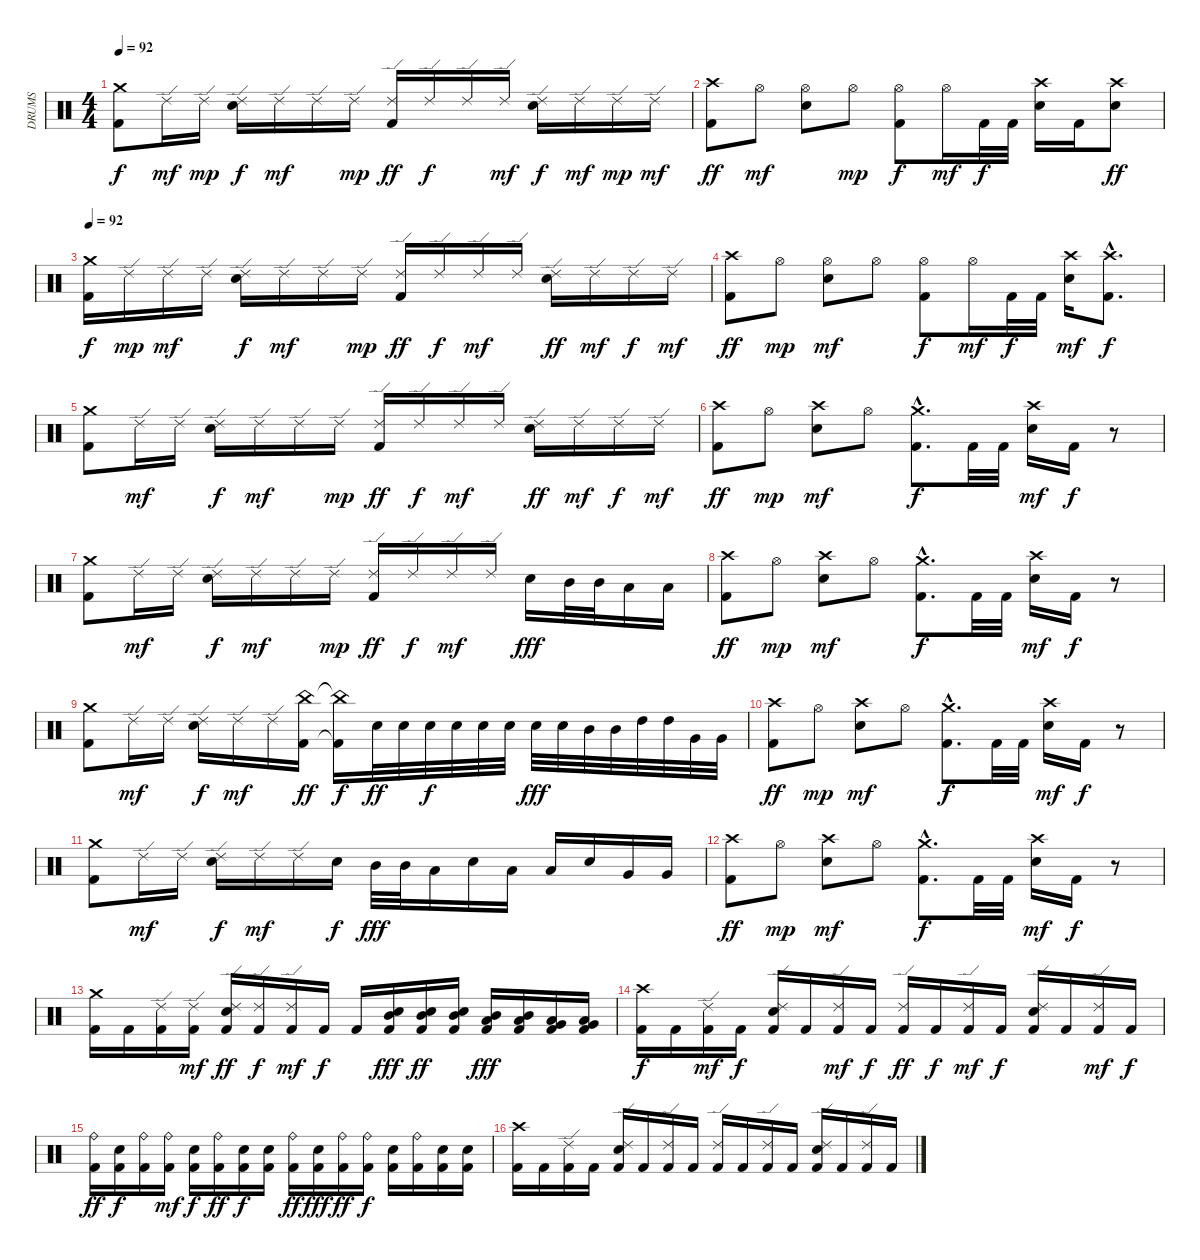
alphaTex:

\track ("DRUMS" "DRUMS") {instrument percussion}
\staff {score}
\articulation defaults
\ts (4 4)
\tempo 92
\clef neutral
\ks c
("Crash medium (hit)" "Kick (hit) 2").8{dy f} "Ride (edge) 2".16{dy mf} "Ride (edge) 2".16{dy mp} ("Ride (edge) 2" "Electric Snare (hit)").16{dy f} "Ride (edge) 2".16{dy mf} "Ride (edge) 2".16 "Ride (edge) 2".16{dy mp} ("Ride (edge) 2" "Kick (hit) 2").16{dy ff} "Ride (edge) 2".16{dy f} "Ride (edge) 2".16 "Ride (edge) 2".16{dy mf} ("Ride (edge) 2" "Electric Snare (hit)").16{dy f} "Ride (edge) 2".16{dy mf} "Ride (edge) 2".16{dy mp} "Ride (edge) 2".16{dy mf} |
("Crash high (hit)" "Kick (hit) 2").8{dy ff} "Hi-Hat (open)".8{dy mf} ("Hi-Hat (open)" "Electric Snare (hit)").8 "Hi-Hat (open)".8{dy mp} ("Hi-Hat (open)" "Kick (hit) 2").8{dy f} "Hi-Hat (open)".16{dy mf} "Kick (hit) 2".32{dy f} "Kick (hit) 2".32 ("Crash high (hit)" "Electric Snare (hit)").16 "Kick (hit) 2".16 ("Crash high (hit)" "Electric Snare (hit)").8{dy ff} |
\tempo 92
("Crash medium (hit)" "Kick (hit) 2").16{dy f} "Ride (edge) 2".16{dy mp} "Ride (edge) 2".16{dy mf} "Ride (edge) 2".16 ("Ride (edge) 2" "Electric Snare (hit)").16{dy f} "Ride (edge) 2".16{dy mf} "Ride (edge) 2".16 "Ride (edge) 2".16{dy mp} ("Ride (edge) 2" "Kick (hit) 2").16{dy ff} "Ride (edge) 2".16{dy f} "Ride (edge) 2".16{dy mf} "Ride (edge) 2".16 ("Ride (edge) 2" "Electric Snare (hit)").16{dy ff} "Ride (edge) 2".16{dy mf} "Ride (edge) 2".16{dy f} "Ride (edge) 2".16{dy mf} |
("Crash high (hit)" "Kick (hit) 2").8{dy ff} "Hi-Hat (open)".8{dy mp} ("Hi-Hat (open)" "Electric Snare (hit)").8{dy mf} "Hi-Hat (open)".8 ("Hi-Hat (open)" "Kick (hit) 2").8{dy f} "Hi-Hat (open)".16{dy mf} "Kick (hit) 2".32{dy f} "Kick (hit) 2".32 ("Crash high (hit)" "Electric Snare (hit)").16{dy mf} ("Crash high (hit)"{hac} "Kick (hit) 2"{hac}).8{d dy f} |
("Crash medium (hit)" "Kick (hit) 2").8 "Ride (edge) 2".16{dy mf} "Ride (edge) 2".16 ("Ride (edge) 2" "Electric Snare (hit)").16{dy f} "Ride (edge) 2".16{dy mf} "Ride (edge) 2".16 "Ride (edge) 2".16{dy mp} ("Ride (edge) 2" "Kick (hit) 2").16{dy ff} "Ride (edge) 2".16{dy f} "Ride (edge) 2".16{dy mf} "Ride (edge) 2".16 ("Ride (edge) 2" "Electric Snare (hit)").16{dy ff} "Ride (edge) 2".16{dy mf} "Ride (edge) 2".16{dy f} "Ride (edge) 2".16{dy mf} |
("Crash high (hit)" "Kick (hit) 2").8{dy ff} "Hi-Hat (open)".8{dy mp} ("Crash high (hit)" "Electric Snare (hit)").8{dy mf} "Hi-Hat (open)".8 ("Crash medium (hit)"{hac} "Kick (hit) 2"{hac}).8{d dy f} "Kick (hit) 2".32 "Kick (hit) 2".32 ("Crash high (hit)" "Electric Snare (hit)").16{dy mf} "Kick (hit) 2".16{dy f} r.8{volume 0} |
("Crash medium (hit)" "Kick (hit) 2").8{volume 14} "Ride (edge) 2".16{dy mf} "Ride (edge) 2".16 ("Ride (edge) 2" "Electric Snare (hit)").16{dy f} "Ride (edge) 2".16{dy mf} "Ride (edge) 2".16 "Ride (edge) 2".16{dy mp} ("Ride (edge) 2" "Kick (hit) 2").16{dy ff} "Ride (edge) 2".16{dy f} "Ride (edge) 2".16{dy mf} "Ride (edge) 2".16 "Electric Snare (hit)".16{dy fff} "Mid Tom (hit)".32 "Mid Tom (hit)".32 "Low Tom (hit)".16 "Low Tom (hit)".16 |
("Crash high (hit)" "Kick (hit) 2").8{dy ff} "Hi-Hat (open)".8{dy mp} ("Crash high (hit)" "Electric Snare (hit)").8{dy mf} "Hi-Hat (open)".8 ("Crash medium (hit)"{hac} "Kick (hit) 2"{hac}).8{d dy f} "Kick (hit) 2".32 "Kick (hit) 2".32 ("Crash high (hit)" "Electric Snare (hit)").16{dy mf} "Kick (hit) 2".16{dy f} r.8{volume 0} |
("Crash medium (hit)" "Kick (hit) 2").8{volume 14} "Ride (edge) 2".16{dy mf} "Ride (edge) 2".16 ("Ride (edge) 2" "Electric Snare (hit)").16{dy f} "Ride (edge) 2".16{dy mf} "Ride (edge) 2".16 ("China (hit)" "Kick (hit) 2").16{dy ff} ("China (hit)"{t} "Kick (hit) 2"{t}).16{dy f} "Electric Snare (hit)".32{dy ff} "Electric Snare (hit)".32 "Electric Snare (hit)".32{dy f} "Electric Snare (hit)".32 "Electric Snare (hit)".32 "Electric Snare (hit)".32 "Electric Snare (hit)".32{dy fff} "Electric Snare (hit)".32 "Mid Tom (hit)".32 "Mid Tom (hit)".32 "High Tom (hit)".32 "High Tom (hit)".32 "Very Low Tom (hit)".32 "Very Low Tom (hit)".32 |
("Crash high (hit)" "Kick (hit) 2").8{dy ff} "Hi-Hat (open)".8{dy mp} ("Crash high (hit)" "Electric Snare (hit)").8{dy mf} "Hi-Hat (open)".8 ("Crash medium (hit)"{hac} "Kick (hit) 2"{hac}).8{d dy f} "Kick (hit) 2".32 "Kick (hit) 2".32 ("Crash high (hit)" "Electric Snare (hit)").16{dy mf} "Kick (hit) 2".16{dy f} r.8{volume 0} |
("Crash medium (hit)" "Kick (hit) 2").8{volume 14} "Ride (edge) 2".16{dy mf} "Ride (edge) 2".16 ("Ride (edge) 2" "Electric Snare (hit)").16{dy f} "Ride (edge) 2".16{dy mf} "Ride (edge) 2".16 "Electric Snare (hit)".16{dy f} "Mid Tom (hit)".32{dy fff} "Mid Tom (hit)".32 "Low Tom (hit)".16 "Electric Snare (hit)".16 "Low Tom (hit)".16 "Low Tom (hit)".16 "Electric Snare (hit)".16 "Very Low Tom (hit)".16 "Very Low Tom (hit)".16 |
("Crash high (hit)" "Kick (hit) 2").8{dy ff} "Hi-Hat (open)".8{dy mp} ("Crash high (hit)" "Electric Snare (hit)").8{dy mf} "Hi-Hat (open)".8 ("Crash medium (hit)"{hac} "Kick (hit) 2"{hac}).8{d dy f} "Kick (hit) 2".32 "Kick (hit) 2".32 ("Crash high (hit)" "Electric Snare (hit)").16{dy mf} "Kick (hit) 2".16{dy f} r.8{volume 0} |
("Crash medium (hit)" "Kick (hit) 2").16{volume 14} "Kick (hit) 2".16 ("Ride (edge) 2" "Kick (hit) 2").16 ("Ride (edge) 2" "Kick (hit) 2").16{dy mf} ("Ride (edge) 2" "Electric Snare (hit)" "Kick (hit) 2").16{dy ff} ("Ride (edge) 2" "Kick (hit) 2").16{dy f} ("Ride (edge) 2" "Kick (hit) 2").16{dy mf} "Kick (hit) 2".16{dy f} "Kick (hit) 2".16 ("Mid Tom (hit)" "Electric Snare (hit)" "Kick (hit) 2").16{dy fff} ("Mid Tom (hit)" "Electric Snare (hit)" "Kick (hit) 2").16{dy ff} ("Mid Tom (hit)" "Electric Snare (hit)" "Kick (hit) 2").16 ("Mid Tom (hit)" "Low Tom (hit)" "Kick (hit) 2").16{dy fff} ("Mid Tom (hit)" "Low Tom (hit)" "Kick (hit) 2").16 ("Low Tom (hit)" "Very Low Tom (hit)" "Kick (hit) 2").16 ("Low Tom (hit)" "Very Low Tom (hit)" "Kick (hit) 2").16 |
("Crash high (hit)" "Kick (hit) 2").16{dy f} "Kick (hit) 2".16 ("Ride (edge) 2" "Kick (hit) 2").16{dy mf} "Kick (hit) 2".16{dy f} ("Ride (edge) 2" "Electric Snare (hit)" "Kick (hit) 2").16 "Kick (hit) 2".16 ("Ride (edge) 2" "Kick (hit) 2").16{dy mf} "Kick (hit) 2".16{dy f} ("Ride (edge) 2" "Kick (hit) 2").16{dy ff} "Kick (hit) 2".16{dy f} ("Ride (edge) 2" "Kick (hit) 2").16{dy mf} "Kick (hit) 2".16{dy f} ("Ride (edge) 2" "Electric Snare (hit)" "Kick (hit) 2").16 "Kick (hit) 2".16 ("Ride (edge) 2" "Kick (hit) 2").16{dy mf} "Kick (hit) 2".16{dy f} |
("Ride (bell)" "Kick (hit) 2").16{dy ff} ("Electric Snare (hit)" "Kick (hit) 2").16{dy f} ("Ride (bell)" "Kick (hit) 2").16 ("Ride (bell)" "Kick (hit) 2").16{dy mf} ("Electric Snare (hit)" "Kick (hit) 2").16{dy f} ("Ride (bell)" "Kick (hit) 2").16{dy ff} ("Electric Snare (hit)" "Kick (hit) 2").16{dy f} ("Electric Snare (hit)" "Kick (hit) 2").16 ("Ride (bell)" "Kick (hit) 2").16{dy ff} ("Electric Snare (hit)" "Kick (hit) 2").16{dy fff} ("Ride (bell)" "Kick (hit) 2").16{dy ff} ("Ride (bell)" "Kick (hit) 2").16{dy f} ("Electric Snare (hit)" "Kick (hit) 2").16 ("Ride (bell)" "Kick (hit) 2").16 ("Electric Snare (hit)" "Kick (hit) 2").16 ("Electric Snare (hit)" "Kick (hit) 2").16 |
("Crash high (hit)" "Kick (hit) 2").16 "Kick (hit) 2".16 ("Ride (edge) 2" "Kick (hit) 2").16 "Kick (hit) 2".16 ("Ride (edge) 2" "Electric Snare (hit)" "Kick (hit) 2").16 "Kick (hit) 2".16 ("Ride (edge) 2" "Kick (hit) 2").16 "Kick (hit) 2".16 ("Ride (edge) 2" "Kick (hit) 2").16 "Kick (hit) 2".16 ("Ride (edge) 2" "Kick (hit) 2").16 "Kick (hit) 2".16 ("Ride (edge) 2" "Electric Snare (hit)" "Kick (hit) 2").16 "Kick (hit) 2".16 ("Ride (edge) 2" "Kick (hit) 2").16 "Kick (hit) 2".16
